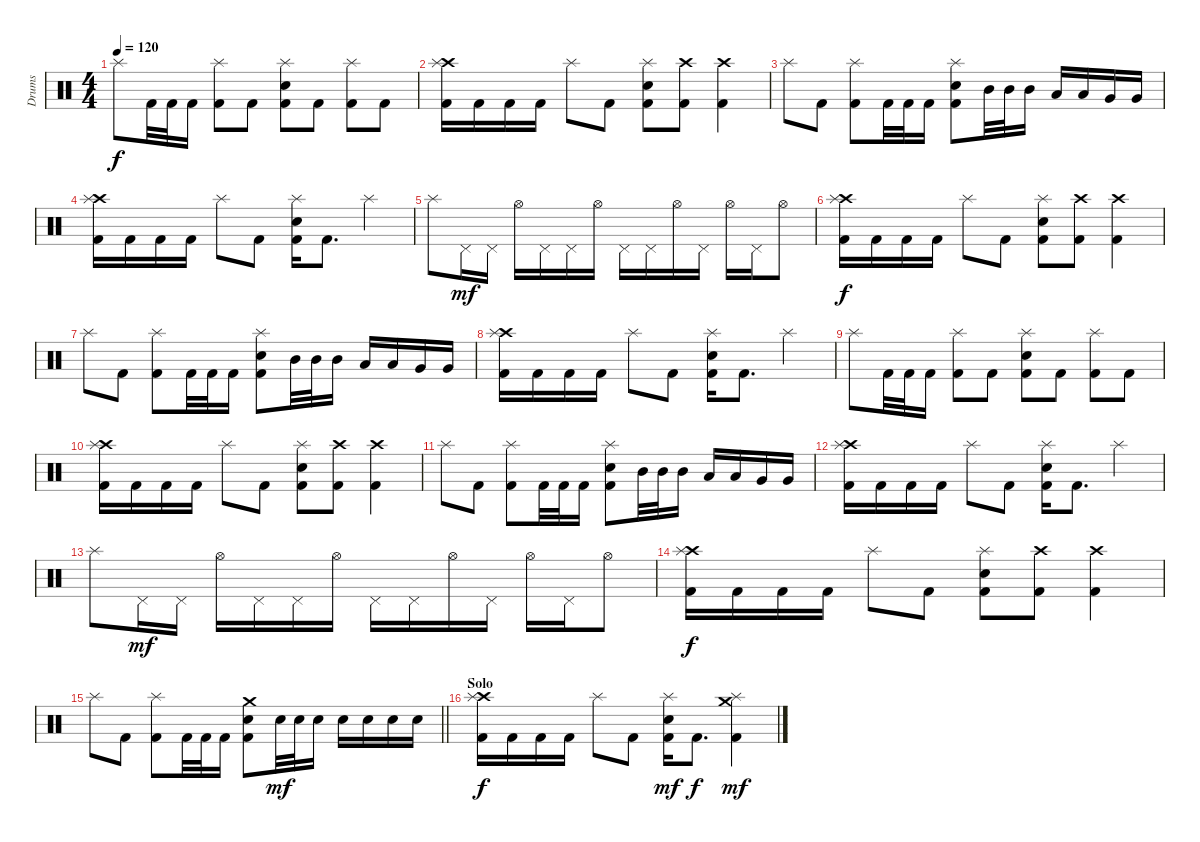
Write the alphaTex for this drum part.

\track ("Drums" "Drums") {instrument percussion}
\staff {score}
\articulation defaults
\ts (4 4)
\tempo 120
\clef neutral
\ks c "Splash (hit)".8{dy f} "Kick (hit) 2".32 "Kick (hit) 2".32 "Kick (hit) 2".16
("Splash (hit)" "Kick (hit) 2").8 "Kick (hit) 2".8 ("Splash (hit)" "Electric Snare (hit)" "Kick (hit) 2").8 "Kick (hit) 2".8 ("Splash (hit)" "Kick (hit) 2").8 "Kick (hit) 2".8 |
("Crash high (hit)" "Splash (hit)" "Kick (hit) 2").16 "Kick (hit) 2".16 "Kick (hit) 2".16 "Kick (hit) 2".16 "Splash (hit)".8 "Kick (hit) 2".8 ("Splash (hit)" "Electric Snare (hit)" "Kick (hit) 2").8 ("Crash high (hit)" "Kick (hit) 2").8 ("Crash high (hit)" "Kick (hit) 2").4 |
"Splash (hit)".8 "Kick (hit) 2".8 ("Splash (hit)" "Kick (hit) 2").8 "Kick (hit) 2".32 "Kick (hit) 2".32 "Kick (hit) 2".16 ("Splash (hit)" "Electric Snare (hit)" "Kick (hit) 2").8 "Mid Tom (hit)".32 "Mid Tom (hit)".32 "Mid Tom (hit)".16 "Low Tom (hit)".16 "Low Tom (hit)".16 "Very Low Tom (hit)".16 "Very Low Tom (hit)".16 |
("Crash high (hit)" "Splash (hit)" "Kick (hit) 2").16 "Kick (hit) 2".16 "Kick (hit) 2".16 "Kick (hit) 2".16 "Splash (hit)".8 "Kick (hit) 2".8 ("Splash (hit)" "Electric Snare (hit)" "Kick (hit) 2").16 "Kick (hit) 2".8{d} "Splash (hit)".4 |
"Splash (hit)".8 "Pedal Hi-Hat (hit)".16{dy mf} "Pedal Hi-Hat (hit)".16 "Hi-Hat (open)".16 "Pedal Hi-Hat (hit)".16 "Pedal Hi-Hat (hit)".16 "Hi-Hat (open)".16 "Pedal Hi-Hat (hit)".16 "Pedal Hi-Hat (hit)".16 "Hi-Hat (open)".16 "Pedal Hi-Hat (hit)".16 "Hi-Hat (open)".16 "Pedal Hi-Hat (hit)".16 "Hi-Hat (open)".8 |
("Crash high (hit)" "Splash (hit)" "Kick (hit) 2").16{dy f} "Kick (hit) 2".16 "Kick (hit) 2".16 "Kick (hit) 2".16 "Splash (hit)".8 "Kick (hit) 2".8 ("Splash (hit)" "Electric Snare (hit)" "Kick (hit) 2").8 ("Crash high (hit)" "Kick (hit) 2").8 ("Crash high (hit)" "Kick (hit) 2").4 |
"Splash (hit)".8 "Kick (hit) 2".8 ("Splash (hit)" "Kick (hit) 2").8 "Kick (hit) 2".32 "Kick (hit) 2".32 "Kick (hit) 2".16 ("Splash (hit)" "Electric Snare (hit)" "Kick (hit) 2").8 "Mid Tom (hit)".32 "Mid Tom (hit)".32 "Mid Tom (hit)".16 "Low Tom (hit)".16 "Low Tom (hit)".16 "Very Low Tom (hit)".16 "Very Low Tom (hit)".16 |
("Crash high (hit)" "Splash (hit)" "Kick (hit) 2").16 "Kick (hit) 2".16 "Kick (hit) 2".16 "Kick (hit) 2".16 "Splash (hit)".8 "Kick (hit) 2".8 ("Splash (hit)" "Electric Snare (hit)" "Kick (hit) 2").16 "Kick (hit) 2".8{d} "Splash (hit)".4 |
"Splash (hit)".8 "Kick (hit) 2".32 "Kick (hit) 2".32 "Kick (hit) 2".16 ("Splash (hit)" "Kick (hit) 2").8 "Kick (hit) 2".8 ("Splash (hit)" "Electric Snare (hit)" "Kick (hit) 2").8 "Kick (hit) 2".8 ("Splash (hit)" "Kick (hit) 2").8 "Kick (hit) 2".8 |
("Crash high (hit)" "Splash (hit)" "Kick (hit) 2").16 "Kick (hit) 2".16 "Kick (hit) 2".16 "Kick (hit) 2".16 "Splash (hit)".8 "Kick (hit) 2".8 ("Splash (hit)" "Electric Snare (hit)" "Kick (hit) 2").8 ("Crash high (hit)" "Kick (hit) 2").8 ("Crash high (hit)" "Kick (hit) 2").4 |
"Splash (hit)".8 "Kick (hit) 2".8 ("Splash (hit)" "Kick (hit) 2").8 "Kick (hit) 2".32 "Kick (hit) 2".32 "Kick (hit) 2".16 ("Splash (hit)" "Electric Snare (hit)" "Kick (hit) 2").8 "Mid Tom (hit)".32 "Mid Tom (hit)".32 "Mid Tom (hit)".16 "Low Tom (hit)".16 "Low Tom (hit)".16 "Very Low Tom (hit)".16 "Very Low Tom (hit)".16 |
("Crash high (hit)" "Splash (hit)" "Kick (hit) 2").16 "Kick (hit) 2".16 "Kick (hit) 2".16 "Kick (hit) 2".16 "Splash (hit)".8 "Kick (hit) 2".8 ("Splash (hit)" "Electric Snare (hit)" "Kick (hit) 2").16 "Kick (hit) 2".8{d} "Splash (hit)".4 |
"Splash (hit)".8 "Pedal Hi-Hat (hit)".16{dy mf} "Pedal Hi-Hat (hit)".16 "Hi-Hat (open)".16 "Pedal Hi-Hat (hit)".16 "Pedal Hi-Hat (hit)".16 "Hi-Hat (open)".16 "Pedal Hi-Hat (hit)".16 "Pedal Hi-Hat (hit)".16 "Hi-Hat (open)".16 "Pedal Hi-Hat (hit)".16 "Hi-Hat (open)".16 "Pedal Hi-Hat (hit)".16 "Hi-Hat (open)".8 |
("Crash high (hit)" "Splash (hit)" "Kick (hit) 2").16{dy f} "Kick (hit) 2".16 "Kick (hit) 2".16 "Kick (hit) 2".16 "Splash (hit)".8 "Kick (hit) 2".8 ("Splash (hit)" "Electric Snare (hit)" "Kick (hit) 2").8 ("Crash high (hit)" "Kick (hit) 2").8 ("Crash high (hit)" "Kick (hit) 2").4 |
\barLineRight lightlight "Splash (hit)".8 "Kick (hit) 2".8
("Splash (hit)" "Kick (hit) 2").8 "Kick (hit) 2".32 "Kick (hit) 2".32 "Kick (hit) 2".16 ("Crash medium (hit)" "Electric Snare (hit)" "Kick (hit) 2").8 "Electric Snare (hit)".32{dy mf} "Electric Snare (hit)".32 "Electric Snare (hit)".16 "Electric Snare (hit)".16 "Electric Snare (hit)".16 "Electric Snare (hit)".16 "Electric Snare (hit)".16 |
\section ("" "Solo")
("Crash high (hit)" "Splash (hit)" "Kick (hit) 2").16{dy f} "Kick (hit) 2".16 "Kick (hit) 2".16 "Kick (hit) 2".16 "Splash (hit)".8 "Kick (hit) 2".8 ("Splash (hit)" "Electric Snare (hit)" "Kick (hit) 2").16{dy mf} "Kick (hit) 2".8{d dy f} ("Crash medium (hit)" "Splash (hit)" "Kick (hit) 2").4{dy mf}
